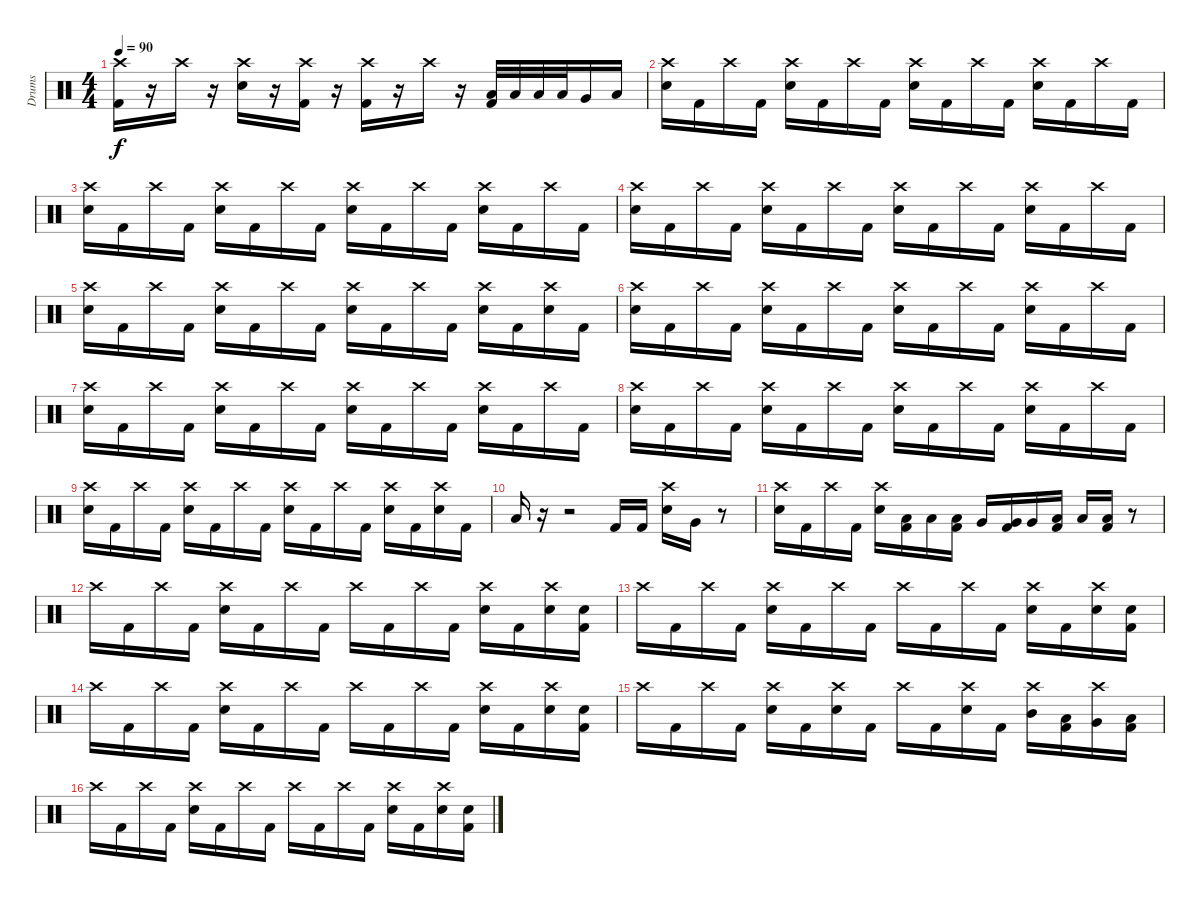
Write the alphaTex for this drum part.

\track ("Drums" "Drums") {instrument percussion}
\staff {score}
\articulation defaults
\ts (4 4)
\tempo 90
\clef neutral
\ks c
("Crash high (hit)" "Kick (hit) 2").16{dy f} r.16 "Crash high (hit)".16 r.16 ("Crash high (hit)" "Electric Snare (hit)").16 r.16 ("Crash high (hit)" "Kick (hit) 2").16 r.16 ("Crash high (hit)" "Kick (hit) 2").16 r.16 "Crash high (hit)".16 r.16 ("Low Tom (hit)" "Kick (hit) 2").32 "Low Tom (hit)".32 "Low Tom (hit)".32 "Low Tom (hit)".32 "Very Low Tom (hit)".16 "Low Floor Tom (hit)".16 |
("Crash high (hit)" "Electric Snare (hit)").16 "Kick (hit) 2".16 "Crash high (hit)".16 "Kick (hit) 2".16 ("Crash high (hit)" "Electric Snare (hit)").16 "Kick (hit) 2".16 "Crash high (hit)".16 "Kick (hit) 2".16 ("Crash high (hit)" "Electric Snare (hit)").16 "Kick (hit) 2".16 "Crash high (hit)".16 "Kick (hit) 2".16 ("Crash high (hit)" "Electric Snare (hit)").16 "Kick (hit) 2".16 "Crash high (hit)".16 "Kick (hit) 2".16 |
("Crash high (hit)" "Electric Snare (hit)").16 "Kick (hit) 2".16 "Crash high (hit)".16 "Kick (hit) 2".16 ("Crash high (hit)" "Electric Snare (hit)").16 "Kick (hit) 2".16 "Crash high (hit)".16 "Kick (hit) 2".16 ("Crash high (hit)" "Electric Snare (hit)").16 "Kick (hit) 2".16 "Crash high (hit)".16 "Kick (hit) 2".16 ("Crash high (hit)" "Electric Snare (hit)").16 "Kick (hit) 2".16 "Crash high (hit)".16 "Kick (hit) 2".16 |
("Crash high (hit)" "Electric Snare (hit)").16 "Kick (hit) 2".16 "Crash high (hit)".16 "Kick (hit) 2".16 ("Crash high (hit)" "Electric Snare (hit)").16 "Kick (hit) 2".16 "Crash high (hit)".16 "Kick (hit) 2".16 ("Crash high (hit)" "Electric Snare (hit)").16 "Kick (hit) 2".16 "Crash high (hit)".16 "Kick (hit) 2".16 ("Crash high (hit)" "Electric Snare (hit)").16 "Kick (hit) 2".16 "Crash high (hit)".16 "Kick (hit) 2".16 |
("Crash high (hit)" "Electric Snare (hit)").16 "Kick (hit) 2".16 "Crash high (hit)".16 "Kick (hit) 2".16 ("Crash high (hit)" "Electric Snare (hit)").16 "Kick (hit) 2".16 "Crash high (hit)".16 "Kick (hit) 2".16 ("Crash high (hit)" "Electric Snare (hit)").16 "Kick (hit) 2".16 "Crash high (hit)".16 "Kick (hit) 2".16 ("Crash high (hit)" "Electric Snare (hit)").16 "Kick (hit) 2".16 ("Crash high (hit)" "Electric Snare (hit)").16 "Kick (hit) 2".16 |
("Crash high (hit)" "Electric Snare (hit)").16 "Kick (hit) 2".16 "Crash high (hit)".16 "Kick (hit) 2".16 ("Crash high (hit)" "Electric Snare (hit)").16 "Kick (hit) 2".16 "Crash high (hit)".16 "Kick (hit) 2".16 ("Crash high (hit)" "Electric Snare (hit)").16 "Kick (hit) 2".16 "Crash high (hit)".16 "Kick (hit) 2".16 ("Crash high (hit)" "Electric Snare (hit)").16 "Kick (hit) 2".16 "Crash high (hit)".16 "Kick (hit) 2".16 |
("Crash high (hit)" "Electric Snare (hit)").16 "Kick (hit) 2".16 "Crash high (hit)".16 "Kick (hit) 2".16 ("Crash high (hit)" "Electric Snare (hit)").16 "Kick (hit) 2".16 "Crash high (hit)".16 "Kick (hit) 2".16 ("Crash high (hit)" "Electric Snare (hit)").16 "Kick (hit) 2".16 "Crash high (hit)".16 "Kick (hit) 2".16 ("Crash high (hit)" "Electric Snare (hit)").16 "Kick (hit) 2".16 "Crash high (hit)".16 "Kick (hit) 2".16 |
("Crash high (hit)" "Electric Snare (hit)").16 "Kick (hit) 2".16 "Crash high (hit)".16 "Kick (hit) 2".16 ("Crash high (hit)" "Electric Snare (hit)").16 "Kick (hit) 2".16 "Crash high (hit)".16 "Kick (hit) 2".16 ("Crash high (hit)" "Electric Snare (hit)").16 "Kick (hit) 2".16 "Crash high (hit)".16 "Kick (hit) 2".16 ("Crash high (hit)" "Electric Snare (hit)").16 "Kick (hit) 2".16 "Crash high (hit)".16 "Kick (hit) 2".16 |
("Crash high (hit)" "Electric Snare (hit)").16 "Kick (hit) 2".16 "Crash high (hit)".16 "Kick (hit) 2".16 ("Crash high (hit)" "Electric Snare (hit)").16 "Kick (hit) 2".16 "Crash high (hit)".16 "Kick (hit) 2".16 ("Crash high (hit)" "Electric Snare (hit)").16 "Kick (hit) 2".16 "Crash high (hit)".16 "Kick (hit) 2".16 ("Crash high (hit)" "Electric Snare (hit)").16 "Kick (hit) 2".16 ("Crash high (hit)" "Electric Snare (hit)").16 "Kick (hit) 2".16 |
"Low Floor Tom (hit)".16 r.16 r.2 "Kick (hit) 2".16 "Kick (hit) 2".16 ("Crash high (hit)" "Electric Snare (hit)").16 "Very Low Tom (hit)".16 r.8 |
("Crash high (hit)" "Electric Snare (hit)").16 "Kick (hit) 2".16 "Crash high (hit)".16 "Kick (hit) 2".16 ("Crash high (hit)" "Electric Snare (hit)").16 ("Low Tom (hit)" "Kick (hit) 2").16 "Low Tom (hit)".16 ("Low Tom (hit)" "Kick (hit) 2").16 "Very Low Tom (hit)".16 ("Very Low Tom (hit)" "Kick (hit) 2").16 "Very Low Tom (hit)".16 ("Low Floor Tom (hit)" "Kick (hit) 2").16 "Low Floor Tom (hit)".16 ("Low Floor Tom (hit)" "Kick (hit) 2").16 r.8 |
"Crash high (hit)".16 "Kick (hit) 2".16 "Crash high (hit)".16 "Kick (hit) 2".16 ("Crash high (hit)" "Electric Snare (hit)").16 "Kick (hit) 2".16 "Crash high (hit)".16 "Kick (hit) 2".16 "Crash high (hit)".16 "Kick (hit) 2".16 "Crash high (hit)".16 "Kick (hit) 2".16 ("Crash high (hit)" "Electric Snare (hit)").16 "Kick (hit) 2".16 ("Crash high (hit)" "Electric Snare (hit)").16 ("Electric Snare (hit)" "Kick (hit) 2").16 |
"Crash high (hit)".16 "Kick (hit) 2".16 "Crash high (hit)".16 "Kick (hit) 2".16 ("Crash high (hit)" "Electric Snare (hit)").16 "Kick (hit) 2".16 "Crash high (hit)".16 "Kick (hit) 2".16 "Crash high (hit)".16 "Kick (hit) 2".16 "Crash high (hit)".16 "Kick (hit) 2".16 ("Crash high (hit)" "Electric Snare (hit)").16 "Kick (hit) 2".16 ("Crash high (hit)" "Electric Snare (hit)").16 ("Electric Snare (hit)" "Kick (hit) 2").16 |
"Crash high (hit)".16 "Kick (hit) 2".16 "Crash high (hit)".16 "Kick (hit) 2".16 ("Crash high (hit)" "Electric Snare (hit)").16 "Kick (hit) 2".16 "Crash high (hit)".16 "Kick (hit) 2".16 "Crash high (hit)".16 "Kick (hit) 2".16 "Crash high (hit)".16 "Kick (hit) 2".16 ("Crash high (hit)" "Electric Snare (hit)").16 "Kick (hit) 2".16 ("Crash high (hit)" "Electric Snare (hit)").16 ("Electric Snare (hit)" "Kick (hit) 2").16 |
"Crash high (hit)".16 "Kick (hit) 2".16 "Crash high (hit)".16 "Kick (hit) 2".16 ("Crash high (hit)" "Electric Snare (hit)").16 "Kick (hit) 2".16 ("Crash high (hit)" "Electric Snare (hit)").16 "Kick (hit) 2".16 "Crash high (hit)".16 "Kick (hit) 2".16 ("Crash high (hit)" "Electric Snare (hit)").16 "Kick (hit) 2".16 ("Crash high (hit)" "Mid Tom (hit)").16 ("Low Tom (hit)" "Kick (hit) 2").16 ("Crash high (hit)" "Very Low Tom (hit)").16 ("Low Floor Tom (hit)" "Kick (hit) 2").16 |
"Crash high (hit)".16 "Kick (hit) 2".16 "Crash high (hit)".16 "Kick (hit) 2".16 ("Crash high (hit)" "Electric Snare (hit)").16 "Kick (hit) 2".16 "Crash high (hit)".16 "Kick (hit) 2".16 "Crash high (hit)".16 "Kick (hit) 2".16 "Crash high (hit)".16 "Kick (hit) 2".16 ("Crash high (hit)" "Electric Snare (hit)").16 "Kick (hit) 2".16 ("Crash high (hit)" "Electric Snare (hit)").16 ("Electric Snare (hit)" "Kick (hit) 2").16
